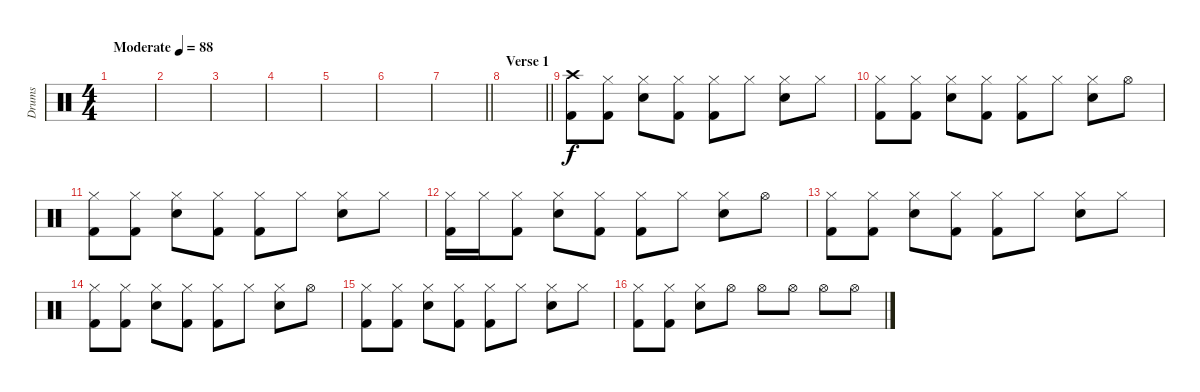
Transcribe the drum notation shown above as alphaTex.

\track ("Drums" "Drums") {instrument percussion}
\staff {score}
\articulation defaults
\ts (4 4)
\tempo (88 "Moderate")
\clef neutral
\ks c
|
|
|
|
|
|
\barLineRight lightlight
|
\section ("" "Verse 1")
\barLineRight lightlight
|
("Crash high (hit)" "Kick (hit) 2").8 ("Hi-Hat (closed)" "Kick (hit) 2").8 ("Hi-Hat (closed)" "Snare (hit) 2").8 ("Hi-Hat (closed)" "Kick (hit) 2").8 ("Hi-Hat (closed)" "Kick (hit) 2").8 "Hi-Hat (closed)".8 ("Hi-Hat (closed)" "Snare (hit) 2").8 "Hi-Hat (closed)".8 |
("Hi-Hat (closed)" "Kick (hit) 2").8 ("Hi-Hat (closed)" "Kick (hit) 2").8 ("Hi-Hat (closed)" "Snare (hit) 2").8 ("Hi-Hat (closed)" "Kick (hit) 2").8 ("Hi-Hat (closed)" "Kick (hit) 2").8 "Hi-Hat (closed)".8 ("Hi-Hat (closed)" "Snare (hit) 2").8 "Hi-Hat (open)".8 |
("Hi-Hat (closed)" "Kick (hit) 2").8 ("Hi-Hat (closed)" "Kick (hit) 2").8 ("Hi-Hat (closed)" "Snare (hit) 2").8 ("Hi-Hat (closed)" "Kick (hit) 2").8 ("Hi-Hat (closed)" "Kick (hit) 2").8 "Hi-Hat (closed)".8 ("Hi-Hat (closed)" "Snare (hit) 2").8 "Hi-Hat (closed)".8 |
("Hi-Hat (closed)" "Kick (hit) 2").16 "Hi-Hat (closed)".16 ("Hi-Hat (closed)" "Kick (hit) 2").8 ("Hi-Hat (closed)" "Snare (hit) 2").8 ("Hi-Hat (closed)" "Kick (hit) 2").8 ("Hi-Hat (closed)" "Kick (hit) 2").8 "Hi-Hat (closed)".8 ("Hi-Hat (closed)" "Snare (hit) 2").8 "Hi-Hat (open)".8 |
("Hi-Hat (closed)" "Kick (hit) 2").8 ("Hi-Hat (closed)" "Kick (hit) 2").8 ("Hi-Hat (closed)" "Snare (hit) 2").8 ("Hi-Hat (closed)" "Kick (hit) 2").8 ("Hi-Hat (closed)" "Kick (hit) 2").8 "Hi-Hat (closed)".8 ("Hi-Hat (closed)" "Snare (hit) 2").8 "Hi-Hat (closed)".8 |
("Hi-Hat (closed)" "Kick (hit) 2").8 ("Hi-Hat (closed)" "Kick (hit) 2").8 ("Hi-Hat (closed)" "Snare (hit) 2").8 ("Hi-Hat (closed)" "Kick (hit) 2").8 ("Hi-Hat (closed)" "Kick (hit) 2").8 "Hi-Hat (closed)".8 ("Hi-Hat (closed)" "Snare (hit) 2").8 "Hi-Hat (open)".8 |
("Hi-Hat (closed)" "Kick (hit) 2").8 ("Hi-Hat (closed)" "Kick (hit) 2").8 ("Hi-Hat (closed)" "Snare (hit) 2").8 ("Hi-Hat (closed)" "Kick (hit) 2").8 ("Hi-Hat (closed)" "Kick (hit) 2").8 "Hi-Hat (closed)".8 ("Hi-Hat (closed)" "Snare (hit) 2").8 "Hi-Hat (closed)".8 |
("Hi-Hat (closed)" "Kick (hit) 2").8 ("Hi-Hat (closed)" "Kick (hit) 2").8 ("Hi-Hat (closed)" "Snare (hit) 2").8 "Hi-Hat (open)".8 "Hi-Hat (open)".8 "Hi-Hat (open)".8 "Hi-Hat (open)".8 "Hi-Hat (open)".8
